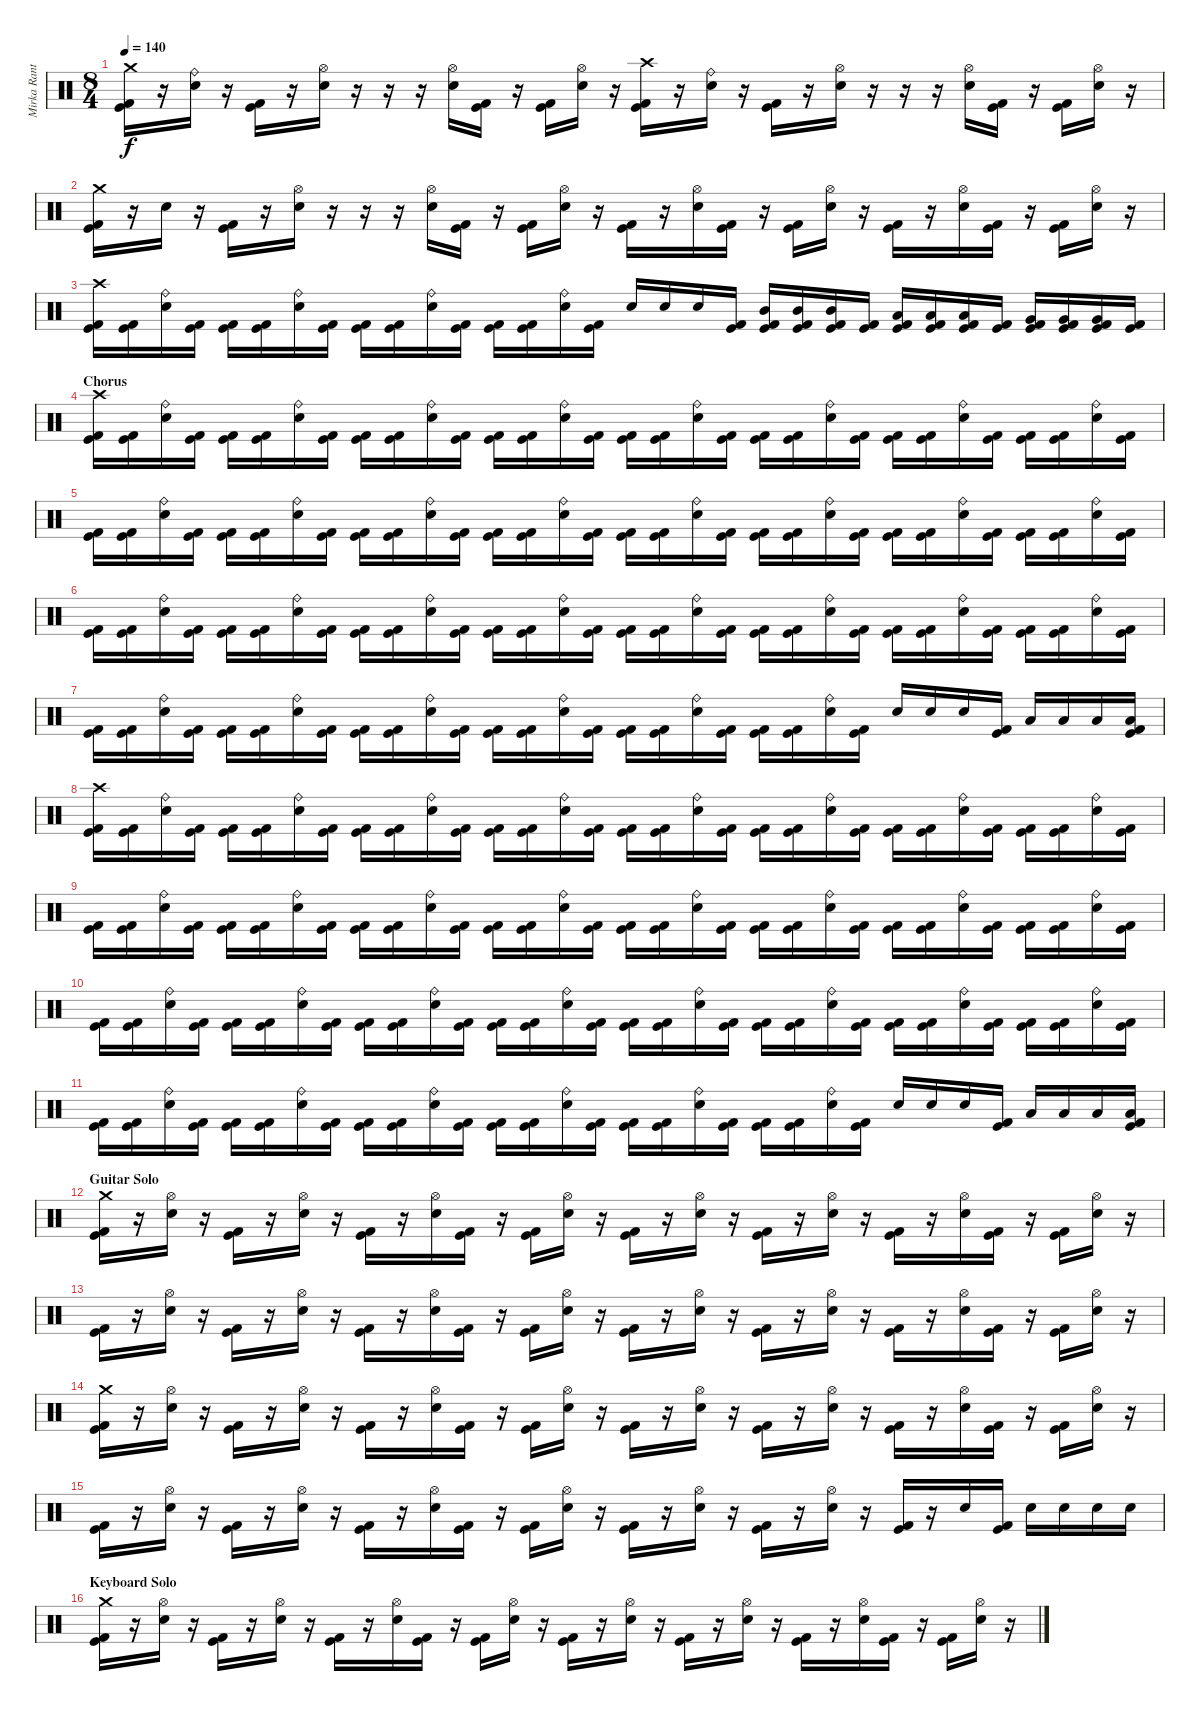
\track ("Mirka Rantanen" "Mirka Rant") {instrument percussion}
\staff {score}
\articulation defaults
\ts (8 4)
\tempo 140
\clef neutral
\ks c
("Crash medium (hit)" "Kick (hit) 2" "Kick (hit)").16{dy f} r.16 ("Ride (bell)" "Electric Snare (hit)").16 r.16 ("Kick (hit) 2" "Kick (hit)").16 r.16 ("Hi-Hat (open)" "Electric Snare (hit)").16 r.16 r.16 r.16 ("Hi-Hat (open)" "Electric Snare (hit)").16 ("Kick (hit) 2" "Kick (hit)").16 r.16 ("Kick (hit) 2" "Kick (hit)").16 ("Hi-Hat (open)" "Electric Snare (hit)").16 r.16 ("Crash high (hit)" "Kick (hit) 2" "Kick (hit)").16 r.16 ("Ride (bell)" "Electric Snare (hit)").16 r.16 ("Kick (hit) 2" "Kick (hit)").16 r.16 ("Hi-Hat (open)" "Electric Snare (hit)").16 r.16 r.16 r.16 ("Hi-Hat (open)" "Electric Snare (hit)").16 ("Kick (hit) 2" "Kick (hit)").16 r.16 ("Kick (hit) 2" "Kick (hit)").16 ("Hi-Hat (open)" "Electric Snare (hit)").16 r.16 |
("Crash medium (hit)" "Kick (hit) 2" "Kick (hit)").16 r.16 "Electric Snare (hit)".16 r.16 ("Kick (hit) 2" "Kick (hit)").16 r.16 ("Hi-Hat (open)" "Electric Snare (hit)").16 r.16 r.16 r.16 ("Hi-Hat (open)" "Electric Snare (hit)").16 ("Kick (hit) 2" "Kick (hit)").16 r.16 ("Kick (hit) 2" "Kick (hit)").16 ("Hi-Hat (open)" "Electric Snare (hit)").16 r.16 ("Kick (hit) 2" "Kick (hit)").16 r.16 ("Hi-Hat (open)" "Electric Snare (hit)").16 ("Kick (hit) 2" "Kick (hit)").16 r.16 ("Kick (hit) 2" "Kick (hit)").16 ("Hi-Hat (open)" "Electric Snare (hit)").16 r.16 ("Kick (hit) 2" "Kick (hit)").16 r.16 ("Hi-Hat (open)" "Electric Snare (hit)").16 ("Kick (hit) 2" "Kick (hit)").16 r.16 ("Kick (hit) 2" "Kick (hit)").16 ("Hi-Hat (open)" "Electric Snare (hit)").16 r.16 |
("Crash high (hit)" "Kick (hit) 2" "Kick (hit)").16 ("Kick (hit) 2" "Kick (hit)").16 ("Ride (bell)" "Electric Snare (hit)").16 ("Kick (hit) 2" "Kick (hit)").16 ("Kick (hit) 2" "Kick (hit)").16 ("Kick (hit) 2" "Kick (hit)").16 ("Ride (bell)" "Electric Snare (hit)").16 ("Kick (hit) 2" "Kick (hit)").16 ("Kick (hit) 2" "Kick (hit)").16 ("Kick (hit) 2" "Kick (hit)").16 ("Ride (bell)" "Electric Snare (hit)").16 ("Kick (hit) 2" "Kick (hit)").16 ("Kick (hit) 2" "Kick (hit)").16 ("Kick (hit) 2" "Kick (hit)").16 ("Ride (bell)" "Electric Snare (hit)").16 ("Kick (hit) 2" "Kick (hit)").16 "Electric Snare (hit)".16 "Electric Snare (hit)".16 "Electric Snare (hit)".16 ("Kick (hit) 2" "Kick (hit)").16 ("Mid Tom (hit)" "Kick (hit) 2" "Kick (hit)").16 ("Mid Tom (hit)" "Kick (hit) 2" "Kick (hit)").16 ("Mid Tom (hit)" "Kick (hit) 2" "Kick (hit)").16 ("Kick (hit) 2" "Kick (hit)").16 ("Low Tom (hit)" "Kick (hit) 2" "Kick (hit)").16 ("Low Tom (hit)" "Kick (hit) 2" "Kick (hit)").16 ("Low Tom (hit)" "Kick (hit) 2" "Kick (hit)").16 ("Kick (hit) 2" "Kick (hit)").16 ("Very Low Tom (hit)" "Kick (hit) 2" "Kick (hit)").16 ("Very Low Tom (hit)" "Kick (hit) 2" "Kick (hit)").16 ("Very Low Tom (hit)" "Kick (hit)" "Kick (hit) 2").16 ("Kick (hit) 2" "Kick (hit)").16 |
\section ("" "Chorus")
("Crash high (hit)" "Kick (hit) 2" "Kick (hit)").16 ("Kick (hit) 2" "Kick (hit)").16 ("Ride (bell)" "Electric Snare (hit)").16 ("Kick (hit) 2" "Kick (hit)").16 ("Kick (hit) 2" "Kick (hit)").16 ("Kick (hit) 2" "Kick (hit)").16 ("Ride (bell)" "Electric Snare (hit)").16 ("Kick (hit) 2" "Kick (hit)").16 ("Kick (hit) 2" "Kick (hit)").16 ("Kick (hit) 2" "Kick (hit)").16 ("Ride (bell)" "Electric Snare (hit)").16 ("Kick (hit) 2" "Kick (hit)").16 ("Kick (hit) 2" "Kick (hit)").16 ("Kick (hit) 2" "Kick (hit)").16 ("Ride (bell)" "Electric Snare (hit)").16 ("Kick (hit) 2" "Kick (hit)").16 ("Kick (hit) 2" "Kick (hit)").16 ("Kick (hit) 2" "Kick (hit)").16 ("Ride (bell)" "Electric Snare (hit)").16 ("Kick (hit) 2" "Kick (hit)").16 ("Kick (hit) 2" "Kick (hit)").16 ("Kick (hit) 2" "Kick (hit)").16 ("Ride (bell)" "Electric Snare (hit)").16 ("Kick (hit) 2" "Kick (hit)").16 ("Kick (hit) 2" "Kick (hit)").16 ("Kick (hit) 2" "Kick (hit)").16 ("Ride (bell)" "Electric Snare (hit)").16 ("Kick (hit) 2" "Kick (hit)").16 ("Kick (hit) 2" "Kick (hit)").16 ("Kick (hit) 2" "Kick (hit)").16 ("Ride (bell)" "Electric Snare (hit)").16 ("Kick (hit) 2" "Kick (hit)").16 |
("Kick (hit) 2" "Kick (hit)").16 ("Kick (hit) 2" "Kick (hit)").16 ("Ride (bell)" "Electric Snare (hit)").16 ("Kick (hit) 2" "Kick (hit)").16 ("Kick (hit) 2" "Kick (hit)").16 ("Kick (hit) 2" "Kick (hit)").16 ("Ride (bell)" "Electric Snare (hit)").16 ("Kick (hit) 2" "Kick (hit)").16 ("Kick (hit) 2" "Kick (hit)").16 ("Kick (hit) 2" "Kick (hit)").16 ("Ride (bell)" "Electric Snare (hit)").16 ("Kick (hit) 2" "Kick (hit)").16 ("Kick (hit) 2" "Kick (hit)").16 ("Kick (hit) 2" "Kick (hit)").16 ("Ride (bell)" "Electric Snare (hit)").16 ("Kick (hit) 2" "Kick (hit)").16 ("Kick (hit) 2" "Kick (hit)").16 ("Kick (hit) 2" "Kick (hit)").16 ("Ride (bell)" "Electric Snare (hit)").16 ("Kick (hit) 2" "Kick (hit)").16 ("Kick (hit) 2" "Kick (hit)").16 ("Kick (hit) 2" "Kick (hit)").16 ("Ride (bell)" "Electric Snare (hit)").16 ("Kick (hit) 2" "Kick (hit)").16 ("Kick (hit) 2" "Kick (hit)").16 ("Kick (hit) 2" "Kick (hit)").16 ("Ride (bell)" "Electric Snare (hit)").16 ("Kick (hit) 2" "Kick (hit)").16 ("Kick (hit) 2" "Kick (hit)").16 ("Kick (hit) 2" "Kick (hit)").16 ("Ride (bell)" "Electric Snare (hit)").16 ("Kick (hit) 2" "Kick (hit)").16 |
("Kick (hit) 2" "Kick (hit)").16 ("Kick (hit) 2" "Kick (hit)").16 ("Ride (bell)" "Electric Snare (hit)").16 ("Kick (hit) 2" "Kick (hit)").16 ("Kick (hit) 2" "Kick (hit)").16 ("Kick (hit) 2" "Kick (hit)").16 ("Ride (bell)" "Electric Snare (hit)").16 ("Kick (hit) 2" "Kick (hit)").16 ("Kick (hit) 2" "Kick (hit)").16 ("Kick (hit) 2" "Kick (hit)").16 ("Ride (bell)" "Electric Snare (hit)").16 ("Kick (hit) 2" "Kick (hit)").16 ("Kick (hit) 2" "Kick (hit)").16 ("Kick (hit) 2" "Kick (hit)").16 ("Ride (bell)" "Electric Snare (hit)").16 ("Kick (hit) 2" "Kick (hit)").16 ("Kick (hit) 2" "Kick (hit)").16 ("Kick (hit) 2" "Kick (hit)").16 ("Ride (bell)" "Electric Snare (hit)").16 ("Kick (hit) 2" "Kick (hit)").16 ("Kick (hit) 2" "Kick (hit)").16 ("Kick (hit) 2" "Kick (hit)").16 ("Ride (bell)" "Electric Snare (hit)").16 ("Kick (hit) 2" "Kick (hit)").16 ("Kick (hit) 2" "Kick (hit)").16 ("Kick (hit) 2" "Kick (hit)").16 ("Ride (bell)" "Electric Snare (hit)").16 ("Kick (hit) 2" "Kick (hit)").16 ("Kick (hit) 2" "Kick (hit)").16 ("Kick (hit) 2" "Kick (hit)").16 ("Ride (bell)" "Electric Snare (hit)").16 ("Kick (hit) 2" "Kick (hit)").16 |
("Kick (hit) 2" "Kick (hit)").16 ("Kick (hit) 2" "Kick (hit)").16 ("Ride (bell)" "Electric Snare (hit)").16 ("Kick (hit) 2" "Kick (hit)").16 ("Kick (hit) 2" "Kick (hit)").16 ("Kick (hit) 2" "Kick (hit)").16 ("Ride (bell)" "Electric Snare (hit)").16 ("Kick (hit) 2" "Kick (hit)").16 ("Kick (hit) 2" "Kick (hit)").16 ("Kick (hit) 2" "Kick (hit)").16 ("Ride (bell)" "Electric Snare (hit)").16 ("Kick (hit) 2" "Kick (hit)").16 ("Kick (hit) 2" "Kick (hit)").16 ("Kick (hit) 2" "Kick (hit)").16 ("Ride (bell)" "Electric Snare (hit)").16 ("Kick (hit) 2" "Kick (hit)").16 ("Kick (hit) 2" "Kick (hit)").16 ("Kick (hit) 2" "Kick (hit)").16 ("Ride (bell)" "Electric Snare (hit)").16 ("Kick (hit) 2" "Kick (hit)").16 ("Kick (hit) 2" "Kick (hit)").16 ("Kick (hit) 2" "Kick (hit)").16 ("Ride (bell)" "Electric Snare (hit)").16 ("Kick (hit) 2" "Kick (hit)").16 "Electric Snare (hit)".16 "Electric Snare (hit)".16 "Electric Snare (hit)".16 ("Kick (hit) 2" "Kick (hit)").16 "Low Tom (hit)".16 "Low Tom (hit)".16 "Low Tom (hit)".16 ("Low Tom (hit)" "Kick (hit) 2" "Kick (hit)").16 |
("Crash high (hit)" "Kick (hit) 2" "Kick (hit)").16 ("Kick (hit) 2" "Kick (hit)").16 ("Ride (bell)" "Electric Snare (hit)").16 ("Kick (hit) 2" "Kick (hit)").16 ("Kick (hit) 2" "Kick (hit)").16 ("Kick (hit) 2" "Kick (hit)").16 ("Ride (bell)" "Electric Snare (hit)").16 ("Kick (hit) 2" "Kick (hit)").16 ("Kick (hit) 2" "Kick (hit)").16 ("Kick (hit) 2" "Kick (hit)").16 ("Ride (bell)" "Electric Snare (hit)").16 ("Kick (hit) 2" "Kick (hit)").16 ("Kick (hit) 2" "Kick (hit)").16 ("Kick (hit) 2" "Kick (hit)").16 ("Ride (bell)" "Electric Snare (hit)").16 ("Kick (hit) 2" "Kick (hit)").16 ("Kick (hit) 2" "Kick (hit)").16 ("Kick (hit) 2" "Kick (hit)").16 ("Ride (bell)" "Electric Snare (hit)").16 ("Kick (hit) 2" "Kick (hit)").16 ("Kick (hit) 2" "Kick (hit)").16 ("Kick (hit) 2" "Kick (hit)").16 ("Ride (bell)" "Electric Snare (hit)").16 ("Kick (hit) 2" "Kick (hit)").16 ("Kick (hit) 2" "Kick (hit)").16 ("Kick (hit) 2" "Kick (hit)").16 ("Ride (bell)" "Electric Snare (hit)").16 ("Kick (hit) 2" "Kick (hit)").16 ("Kick (hit) 2" "Kick (hit)").16 ("Kick (hit) 2" "Kick (hit)").16 ("Ride (bell)" "Electric Snare (hit)").16 ("Kick (hit) 2" "Kick (hit)").16 |
("Kick (hit) 2" "Kick (hit)").16 ("Kick (hit) 2" "Kick (hit)").16 ("Ride (bell)" "Electric Snare (hit)").16 ("Kick (hit) 2" "Kick (hit)").16 ("Kick (hit) 2" "Kick (hit)").16 ("Kick (hit) 2" "Kick (hit)").16 ("Ride (bell)" "Electric Snare (hit)").16 ("Kick (hit) 2" "Kick (hit)").16 ("Kick (hit) 2" "Kick (hit)").16 ("Kick (hit) 2" "Kick (hit)").16 ("Ride (bell)" "Electric Snare (hit)").16 ("Kick (hit) 2" "Kick (hit)").16 ("Kick (hit) 2" "Kick (hit)").16 ("Kick (hit) 2" "Kick (hit)").16 ("Ride (bell)" "Electric Snare (hit)").16 ("Kick (hit) 2" "Kick (hit)").16 ("Kick (hit) 2" "Kick (hit)").16 ("Kick (hit) 2" "Kick (hit)").16 ("Ride (bell)" "Electric Snare (hit)").16 ("Kick (hit) 2" "Kick (hit)").16 ("Kick (hit) 2" "Kick (hit)").16 ("Kick (hit) 2" "Kick (hit)").16 ("Ride (bell)" "Electric Snare (hit)").16 ("Kick (hit) 2" "Kick (hit)").16 ("Kick (hit) 2" "Kick (hit)").16 ("Kick (hit) 2" "Kick (hit)").16 ("Ride (bell)" "Electric Snare (hit)").16 ("Kick (hit) 2" "Kick (hit)").16 ("Kick (hit) 2" "Kick (hit)").16 ("Kick (hit) 2" "Kick (hit)").16 ("Ride (bell)" "Electric Snare (hit)").16 ("Kick (hit) 2" "Kick (hit)").16 |
("Kick (hit) 2" "Kick (hit)").16 ("Kick (hit) 2" "Kick (hit)").16 ("Ride (bell)" "Electric Snare (hit)").16 ("Kick (hit) 2" "Kick (hit)").16 ("Kick (hit) 2" "Kick (hit)").16 ("Kick (hit) 2" "Kick (hit)").16 ("Ride (bell)" "Electric Snare (hit)").16 ("Kick (hit) 2" "Kick (hit)").16 ("Kick (hit) 2" "Kick (hit)").16 ("Kick (hit) 2" "Kick (hit)").16 ("Ride (bell)" "Electric Snare (hit)").16 ("Kick (hit) 2" "Kick (hit)").16 ("Kick (hit) 2" "Kick (hit)").16 ("Kick (hit) 2" "Kick (hit)").16 ("Ride (bell)" "Electric Snare (hit)").16 ("Kick (hit) 2" "Kick (hit)").16 ("Kick (hit) 2" "Kick (hit)").16 ("Kick (hit) 2" "Kick (hit)").16 ("Ride (bell)" "Electric Snare (hit)").16 ("Kick (hit) 2" "Kick (hit)").16 ("Kick (hit) 2" "Kick (hit)").16 ("Kick (hit) 2" "Kick (hit)").16 ("Ride (bell)" "Electric Snare (hit)").16 ("Kick (hit) 2" "Kick (hit)").16 ("Kick (hit) 2" "Kick (hit)").16 ("Kick (hit) 2" "Kick (hit)").16 ("Ride (bell)" "Electric Snare (hit)").16 ("Kick (hit) 2" "Kick (hit)").16 ("Kick (hit) 2" "Kick (hit)").16 ("Kick (hit) 2" "Kick (hit)").16 ("Ride (bell)" "Electric Snare (hit)").16 ("Kick (hit) 2" "Kick (hit)").16 |
("Kick (hit) 2" "Kick (hit)").16 ("Kick (hit) 2" "Kick (hit)").16 ("Ride (bell)" "Electric Snare (hit)").16 ("Kick (hit) 2" "Kick (hit)").16 ("Kick (hit) 2" "Kick (hit)").16 ("Kick (hit) 2" "Kick (hit)").16 ("Ride (bell)" "Electric Snare (hit)").16 ("Kick (hit) 2" "Kick (hit)").16 ("Kick (hit) 2" "Kick (hit)").16 ("Kick (hit) 2" "Kick (hit)").16 ("Ride (bell)" "Electric Snare (hit)").16 ("Kick (hit) 2" "Kick (hit)").16 ("Kick (hit) 2" "Kick (hit)").16 ("Kick (hit) 2" "Kick (hit)").16 ("Ride (bell)" "Electric Snare (hit)").16 ("Kick (hit) 2" "Kick (hit)").16 ("Kick (hit) 2" "Kick (hit)").16 ("Kick (hit) 2" "Kick (hit)").16 ("Ride (bell)" "Electric Snare (hit)").16 ("Kick (hit) 2" "Kick (hit)").16 ("Kick (hit) 2" "Kick (hit)").16 ("Kick (hit) 2" "Kick (hit)").16 ("Ride (bell)" "Electric Snare (hit)").16 ("Kick (hit) 2" "Kick (hit)").16 "Electric Snare (hit)".16 "Electric Snare (hit)".16 "Electric Snare (hit)".16 ("Kick (hit) 2" "Kick (hit)").16 "Low Tom (hit)".16 "Low Tom (hit)".16 "Low Tom (hit)".16 ("Low Tom (hit)" "Kick (hit) 2" "Kick (hit)").16 |
\section ("" "Guitar Solo")
("Crash medium (hit)" "Kick (hit) 2" "Kick (hit)").16 r.16 ("Hi-Hat (open)" "Electric Snare (hit)").16 r.16 ("Kick (hit) 2" "Kick (hit)").16 r.16 ("Hi-Hat (open)" "Electric Snare (hit)").16 r.16 ("Kick (hit) 2" "Kick (hit)").16 r.16 ("Hi-Hat (open)" "Electric Snare (hit)").16 ("Kick (hit) 2" "Kick (hit)").16 r.16 ("Kick (hit) 2" "Kick (hit)").16 ("Hi-Hat (open)" "Electric Snare (hit)").16 r.16 ("Kick (hit) 2" "Kick (hit)").16 r.16 ("Hi-Hat (open)" "Electric Snare (hit)").16 r.16 ("Kick (hit) 2" "Kick (hit)").16 r.16 ("Hi-Hat (open)" "Electric Snare (hit)").16 r.16 ("Kick (hit) 2" "Kick (hit)").16 r.16 ("Hi-Hat (open)" "Electric Snare (hit)").16 ("Kick (hit) 2" "Kick (hit)").16 r.16 ("Kick (hit) 2" "Kick (hit)").16 ("Hi-Hat (open)" "Electric Snare (hit)").16 r.16 |
("Kick (hit) 2" "Kick (hit)").16 r.16 ("Hi-Hat (open)" "Electric Snare (hit)").16 r.16 ("Kick (hit) 2" "Kick (hit)").16 r.16 ("Hi-Hat (open)" "Electric Snare (hit)").16 r.16 ("Kick (hit) 2" "Kick (hit)").16 r.16 ("Hi-Hat (open)" "Electric Snare (hit)").16 ("Kick (hit) 2" "Kick (hit)").16 r.16 ("Kick (hit) 2" "Kick (hit)").16 ("Hi-Hat (open)" "Electric Snare (hit)").16 r.16 ("Kick (hit) 2" "Kick (hit)").16 r.16 ("Hi-Hat (open)" "Electric Snare (hit)").16 r.16 ("Kick (hit) 2" "Kick (hit)").16 r.16 ("Hi-Hat (open)" "Electric Snare (hit)").16 r.16 ("Kick (hit) 2" "Kick (hit)").16 r.16 ("Hi-Hat (open)" "Electric Snare (hit)").16 ("Kick (hit) 2" "Kick (hit)").16 r.16 ("Kick (hit) 2" "Kick (hit)").16 ("Hi-Hat (open)" "Electric Snare (hit)").16 r.16 |
("Crash medium (hit)" "Kick (hit) 2" "Kick (hit)").16 r.16 ("Hi-Hat (open)" "Electric Snare (hit)").16 r.16 ("Kick (hit) 2" "Kick (hit)").16 r.16 ("Hi-Hat (open)" "Electric Snare (hit)").16 r.16 ("Kick (hit) 2" "Kick (hit)").16 r.16 ("Hi-Hat (open)" "Electric Snare (hit)").16 ("Kick (hit) 2" "Kick (hit)").16 r.16 ("Kick (hit) 2" "Kick (hit)").16 ("Hi-Hat (open)" "Electric Snare (hit)").16 r.16 ("Kick (hit) 2" "Kick (hit)").16 r.16 ("Hi-Hat (open)" "Electric Snare (hit)").16 r.16 ("Kick (hit) 2" "Kick (hit)").16 r.16 ("Hi-Hat (open)" "Electric Snare (hit)").16 r.16 ("Kick (hit) 2" "Kick (hit)").16 r.16 ("Hi-Hat (open)" "Electric Snare (hit)").16 ("Kick (hit) 2" "Kick (hit)").16 r.16 ("Kick (hit) 2" "Kick (hit)").16 ("Hi-Hat (open)" "Electric Snare (hit)").16 r.16 |
("Kick (hit) 2" "Kick (hit)").16 r.16 ("Hi-Hat (open)" "Electric Snare (hit)").16 r.16 ("Kick (hit) 2" "Kick (hit)").16 r.16 ("Hi-Hat (open)" "Electric Snare (hit)").16 r.16 ("Kick (hit) 2" "Kick (hit)").16 r.16 ("Hi-Hat (open)" "Electric Snare (hit)").16 ("Kick (hit) 2" "Kick (hit)").16 r.16 ("Kick (hit) 2" "Kick (hit)").16 ("Hi-Hat (open)" "Electric Snare (hit)").16 r.16 ("Kick (hit) 2" "Kick (hit)").16 r.16 ("Hi-Hat (open)" "Electric Snare (hit)").16 r.16 ("Kick (hit) 2" "Kick (hit)").16 r.16 ("Hi-Hat (open)" "Electric Snare (hit)").16 r.16 ("Kick (hit) 2" "Kick (hit)").16 r.16 "Electric Snare (hit)".16 ("Kick (hit) 2" "Kick (hit)").16 "Electric Snare (hit)".16 "Electric Snare (hit)".16 "Electric Snare (hit)".16 "Electric Snare (hit)".16 |
\section ("" "Keyboard Solo")
("Crash medium (hit)" "Kick (hit) 2" "Kick (hit)").16 r.16 ("Hi-Hat (open)" "Electric Snare (hit)").16 r.16 ("Kick (hit) 2" "Kick (hit)").16 r.16 ("Hi-Hat (open)" "Electric Snare (hit)").16 r.16 ("Kick (hit) 2" "Kick (hit)").16 r.16 ("Hi-Hat (open)" "Electric Snare (hit)").16 ("Kick (hit) 2" "Kick (hit)").16 r.16 ("Kick (hit) 2" "Kick (hit)").16 ("Hi-Hat (open)" "Electric Snare (hit)").16 r.16 ("Kick (hit) 2" "Kick (hit)").16 r.16 ("Hi-Hat (open)" "Electric Snare (hit)").16 r.16 ("Kick (hit) 2" "Kick (hit)").16 r.16 ("Hi-Hat (open)" "Electric Snare (hit)").16 r.16 ("Kick (hit) 2" "Kick (hit)").16 r.16 ("Hi-Hat (open)" "Electric Snare (hit)").16 ("Kick (hit) 2" "Kick (hit)").16 r.16 ("Kick (hit) 2" "Kick (hit)").16 ("Hi-Hat (open)" "Electric Snare (hit)").16 r.16
